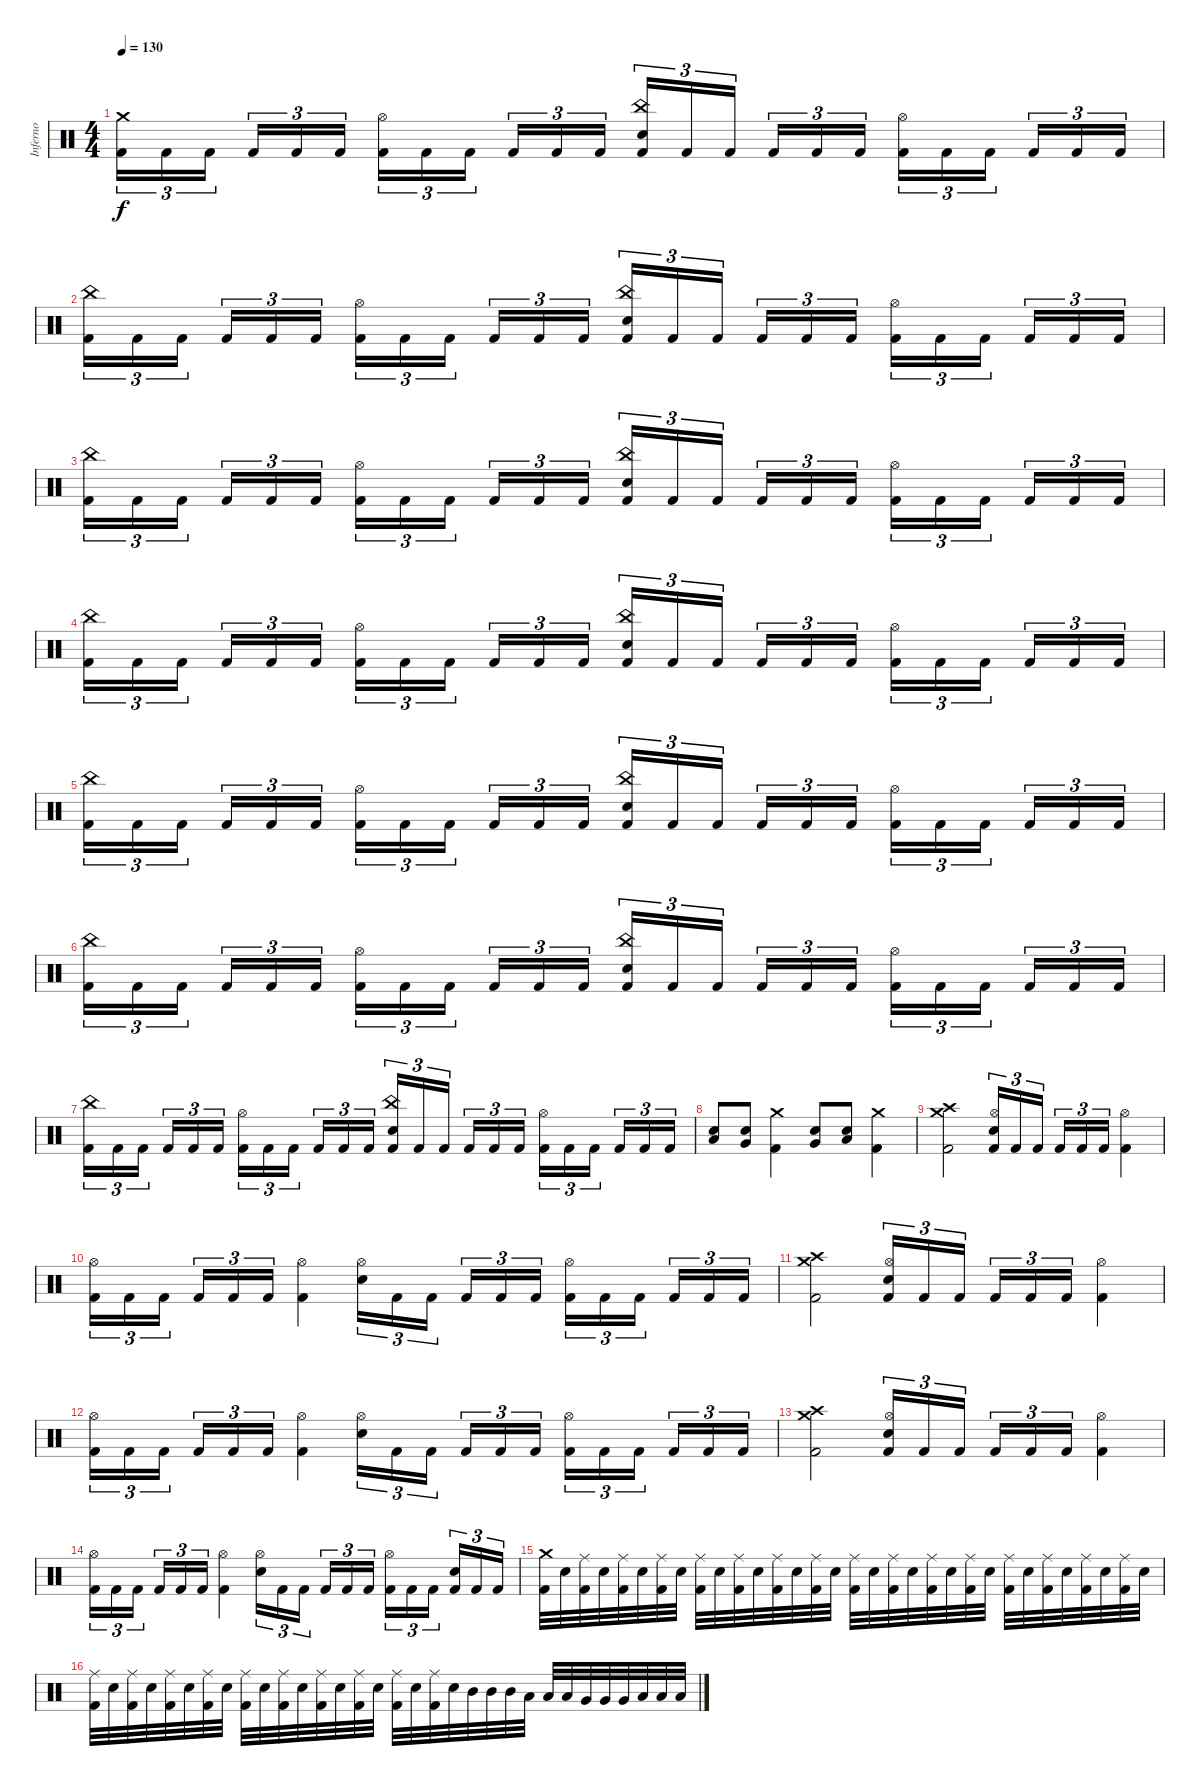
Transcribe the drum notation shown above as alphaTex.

\track ("Inferno" "Inferno") {instrument percussion}
\staff {score}
\articulation defaults
\ts (4 4)
\tempo 130
\clef neutral
\ks c
("Crash medium (hit)" "Kick (hit) 2").16{tu (3 2) dy f} "Kick (hit) 2".16{tu (3 2)} "Kick (hit) 2".16{tu (3 2) beam splitsecondary} "Kick (hit) 2".16{tu (3 2)} "Kick (hit) 2".16{tu (3 2)} "Kick (hit) 2".16{tu (3 2)} ("Hi-Hat (open)" "Kick (hit) 2").16{tu (3 2)} "Kick (hit) 2".16{tu (3 2)} "Kick (hit) 2".16{tu (3 2) beam splitsecondary} "Kick (hit) 2".16{tu (3 2)} "Kick (hit) 2".16{tu (3 2)} "Kick (hit) 2".16{tu (3 2)} ("China (hit)" "Snare (hit) 2" "Kick (hit) 2").16{tu (3 2)} "Kick (hit) 2".16{tu (3 2)} "Kick (hit) 2".16{tu (3 2) beam splitsecondary} "Kick (hit) 2".16{tu (3 2)} "Kick (hit) 2".16{tu (3 2)} "Kick (hit) 2".16{tu (3 2)} ("Hi-Hat (open)" "Kick (hit) 2").16{tu (3 2)} "Kick (hit) 2".16{tu (3 2)} "Kick (hit) 2".16{tu (3 2) beam splitsecondary} "Kick (hit) 2".16{tu (3 2)} "Kick (hit) 2".16{tu (3 2)} "Kick (hit) 2".16{tu (3 2)} |
("China (hit)" "Kick (hit) 2").16{tu (3 2)} "Kick (hit) 2".16{tu (3 2)} "Kick (hit) 2".16{tu (3 2) beam splitsecondary} "Kick (hit) 2".16{tu (3 2)} "Kick (hit) 2".16{tu (3 2)} "Kick (hit) 2".16{tu (3 2)} ("Hi-Hat (open)" "Kick (hit) 2").16{tu (3 2)} "Kick (hit) 2".16{tu (3 2)} "Kick (hit) 2".16{tu (3 2) beam splitsecondary} "Kick (hit) 2".16{tu (3 2)} "Kick (hit) 2".16{tu (3 2)} "Kick (hit) 2".16{tu (3 2)} ("China (hit)" "Snare (hit) 2" "Kick (hit) 2").16{tu (3 2)} "Kick (hit) 2".16{tu (3 2)} "Kick (hit) 2".16{tu (3 2) beam splitsecondary} "Kick (hit) 2".16{tu (3 2)} "Kick (hit) 2".16{tu (3 2)} "Kick (hit) 2".16{tu (3 2)} ("Hi-Hat (open)" "Kick (hit) 2").16{tu (3 2)} "Kick (hit) 2".16{tu (3 2)} "Kick (hit) 2".16{tu (3 2) beam splitsecondary} "Kick (hit) 2".16{tu (3 2)} "Kick (hit) 2".16{tu (3 2)} "Kick (hit) 2".16{tu (3 2)} |
("China (hit)" "Kick (hit) 2").16{tu (3 2)} "Kick (hit) 2".16{tu (3 2)} "Kick (hit) 2".16{tu (3 2) beam splitsecondary} "Kick (hit) 2".16{tu (3 2)} "Kick (hit) 2".16{tu (3 2)} "Kick (hit) 2".16{tu (3 2)} ("Hi-Hat (open)" "Kick (hit) 2").16{tu (3 2)} "Kick (hit) 2".16{tu (3 2)} "Kick (hit) 2".16{tu (3 2) beam splitsecondary} "Kick (hit) 2".16{tu (3 2)} "Kick (hit) 2".16{tu (3 2)} "Kick (hit) 2".16{tu (3 2)} ("China (hit)" "Snare (hit) 2" "Kick (hit) 2").16{tu (3 2)} "Kick (hit) 2".16{tu (3 2)} "Kick (hit) 2".16{tu (3 2) beam splitsecondary} "Kick (hit) 2".16{tu (3 2)} "Kick (hit) 2".16{tu (3 2)} "Kick (hit) 2".16{tu (3 2)} ("Hi-Hat (open)" "Kick (hit) 2").16{tu (3 2)} "Kick (hit) 2".16{tu (3 2)} "Kick (hit) 2".16{tu (3 2) beam splitsecondary} "Kick (hit) 2".16{tu (3 2)} "Kick (hit) 2".16{tu (3 2)} "Kick (hit) 2".16{tu (3 2)} |
("China (hit)" "Kick (hit) 2").16{tu (3 2)} "Kick (hit) 2".16{tu (3 2)} "Kick (hit) 2".16{tu (3 2) beam splitsecondary} "Kick (hit) 2".16{tu (3 2)} "Kick (hit) 2".16{tu (3 2)} "Kick (hit) 2".16{tu (3 2)} ("Hi-Hat (open)" "Kick (hit) 2").16{tu (3 2)} "Kick (hit) 2".16{tu (3 2)} "Kick (hit) 2".16{tu (3 2) beam splitsecondary} "Kick (hit) 2".16{tu (3 2)} "Kick (hit) 2".16{tu (3 2)} "Kick (hit) 2".16{tu (3 2)} ("China (hit)" "Snare (hit) 2" "Kick (hit) 2").16{tu (3 2)} "Kick (hit) 2".16{tu (3 2)} "Kick (hit) 2".16{tu (3 2) beam splitsecondary} "Kick (hit) 2".16{tu (3 2)} "Kick (hit) 2".16{tu (3 2)} "Kick (hit) 2".16{tu (3 2)} ("Hi-Hat (open)" "Kick (hit) 2").16{tu (3 2)} "Kick (hit) 2".16{tu (3 2)} "Kick (hit) 2".16{tu (3 2) beam splitsecondary} "Kick (hit) 2".16{tu (3 2)} "Kick (hit) 2".16{tu (3 2)} "Kick (hit) 2".16{tu (3 2)} |
("China (hit)" "Kick (hit) 2").16{tu (3 2)} "Kick (hit) 2".16{tu (3 2)} "Kick (hit) 2".16{tu (3 2) beam splitsecondary} "Kick (hit) 2".16{tu (3 2)} "Kick (hit) 2".16{tu (3 2)} "Kick (hit) 2".16{tu (3 2)} ("Hi-Hat (open)" "Kick (hit) 2").16{tu (3 2)} "Kick (hit) 2".16{tu (3 2)} "Kick (hit) 2".16{tu (3 2) beam splitsecondary} "Kick (hit) 2".16{tu (3 2)} "Kick (hit) 2".16{tu (3 2)} "Kick (hit) 2".16{tu (3 2)} ("China (hit)" "Snare (hit) 2" "Kick (hit) 2").16{tu (3 2)} "Kick (hit) 2".16{tu (3 2)} "Kick (hit) 2".16{tu (3 2) beam splitsecondary} "Kick (hit) 2".16{tu (3 2)} "Kick (hit) 2".16{tu (3 2)} "Kick (hit) 2".16{tu (3 2)} ("Hi-Hat (open)" "Kick (hit) 2").16{tu (3 2)} "Kick (hit) 2".16{tu (3 2)} "Kick (hit) 2".16{tu (3 2) beam splitsecondary} "Kick (hit) 2".16{tu (3 2)} "Kick (hit) 2".16{tu (3 2)} "Kick (hit) 2".16{tu (3 2)} |
("China (hit)" "Kick (hit) 2").16{tu (3 2)} "Kick (hit) 2".16{tu (3 2)} "Kick (hit) 2".16{tu (3 2) beam splitsecondary} "Kick (hit) 2".16{tu (3 2)} "Kick (hit) 2".16{tu (3 2)} "Kick (hit) 2".16{tu (3 2)} ("Hi-Hat (open)" "Kick (hit) 2").16{tu (3 2)} "Kick (hit) 2".16{tu (3 2)} "Kick (hit) 2".16{tu (3 2) beam splitsecondary} "Kick (hit) 2".16{tu (3 2)} "Kick (hit) 2".16{tu (3 2)} "Kick (hit) 2".16{tu (3 2)} ("China (hit)" "Snare (hit) 2" "Kick (hit) 2").16{tu (3 2)} "Kick (hit) 2".16{tu (3 2)} "Kick (hit) 2".16{tu (3 2) beam splitsecondary} "Kick (hit) 2".16{tu (3 2)} "Kick (hit) 2".16{tu (3 2)} "Kick (hit) 2".16{tu (3 2)} ("Hi-Hat (open)" "Kick (hit) 2").16{tu (3 2)} "Kick (hit) 2".16{tu (3 2)} "Kick (hit) 2".16{tu (3 2) beam splitsecondary} "Kick (hit) 2".16{tu (3 2)} "Kick (hit) 2".16{tu (3 2)} "Kick (hit) 2".16{tu (3 2)} |
("China (hit)" "Kick (hit) 2").16{tu (3 2)} "Kick (hit) 2".16{tu (3 2)} "Kick (hit) 2".16{tu (3 2) beam splitsecondary} "Kick (hit) 2".16{tu (3 2)} "Kick (hit) 2".16{tu (3 2)} "Kick (hit) 2".16{tu (3 2)} ("Hi-Hat (open)" "Kick (hit) 2").16{tu (3 2)} "Kick (hit) 2".16{tu (3 2)} "Kick (hit) 2".16{tu (3 2) beam splitsecondary} "Kick (hit) 2".16{tu (3 2)} "Kick (hit) 2".16{tu (3 2)} "Kick (hit) 2".16{tu (3 2)} ("China (hit)" "Snare (hit) 2" "Kick (hit) 2").16{tu (3 2)} "Kick (hit) 2".16{tu (3 2)} "Kick (hit) 2".16{tu (3 2) beam splitsecondary} "Kick (hit) 2".16{tu (3 2)} "Kick (hit) 2".16{tu (3 2)} "Kick (hit) 2".16{tu (3 2)} ("Hi-Hat (open)" "Kick (hit) 2").16{tu (3 2)} "Kick (hit) 2".16{tu (3 2)} "Kick (hit) 2".16{tu (3 2) beam splitsecondary} "Kick (hit) 2".16{tu (3 2)} "Kick (hit) 2".16{tu (3 2)} "Kick (hit) 2".16{tu (3 2)} |
("Low Tom (hit)" "Snare (hit) 2").8 ("Very Low Tom (hit)" "Snare (hit) 2").8 ("Crash medium (hit)" "Kick (hit) 2").4 ("Very Low Tom (hit)" "Snare (hit) 2").8 ("Low Floor Tom (hit)" "Snare (hit) 2").8 ("Crash medium (hit)" "Kick (hit) 2").4 |
("Crash medium (hit)" "Crash high (hit)" "Kick (hit) 2").2 ("Hi-Hat (open)" "Snare (hit) 2" "Kick (hit) 2").16{tu (3 2)} "Kick (hit) 2".16{tu (3 2)} "Kick (hit) 2".16{tu (3 2) beam splitsecondary} "Kick (hit) 2".16{tu (3 2)} "Kick (hit) 2".16{tu (3 2)} "Kick (hit) 2".16{tu (3 2)} ("Hi-Hat (open)" "Kick (hit) 2").4 |
("Hi-Hat (open)" "Kick (hit) 2").16{tu (3 2)} "Kick (hit) 2".16{tu (3 2)} "Kick (hit) 2".16{tu (3 2) beam splitsecondary} "Kick (hit) 2".16{tu (3 2)} "Kick (hit) 2".16{tu (3 2)} "Kick (hit) 2".16{tu (3 2)} ("Hi-Hat (open)" "Kick (hit) 2").4 ("Hi-Hat (open)" "Snare (hit) 2").16{tu (3 2)} "Kick (hit) 2".16{tu (3 2)} "Kick (hit) 2".16{tu (3 2) beam splitsecondary} "Kick (hit) 2".16{tu (3 2)} "Kick (hit) 2".16{tu (3 2)} "Kick (hit) 2".16{tu (3 2)} ("Hi-Hat (open)" "Kick (hit) 2").16{tu (3 2)} "Kick (hit) 2".16{tu (3 2)} "Kick (hit) 2".16{tu (3 2) beam splitsecondary} "Kick (hit) 2".16{tu (3 2)} "Kick (hit) 2".16{tu (3 2)} "Kick (hit) 2".16{tu (3 2)} |
("Crash medium (hit)" "Crash high (hit)" "Kick (hit) 2").2 ("Hi-Hat (open)" "Snare (hit) 2" "Kick (hit) 2").16{tu (3 2)} "Kick (hit) 2".16{tu (3 2)} "Kick (hit) 2".16{tu (3 2) beam splitsecondary} "Kick (hit) 2".16{tu (3 2)} "Kick (hit) 2".16{tu (3 2)} "Kick (hit) 2".16{tu (3 2)} ("Hi-Hat (open)" "Kick (hit) 2").4 |
("Hi-Hat (open)" "Kick (hit) 2").16{tu (3 2)} "Kick (hit) 2".16{tu (3 2)} "Kick (hit) 2".16{tu (3 2) beam splitsecondary} "Kick (hit) 2".16{tu (3 2)} "Kick (hit) 2".16{tu (3 2)} "Kick (hit) 2".16{tu (3 2)} ("Hi-Hat (open)" "Kick (hit) 2").4 ("Hi-Hat (open)" "Snare (hit) 2").16{tu (3 2)} "Kick (hit) 2".16{tu (3 2)} "Kick (hit) 2".16{tu (3 2) beam splitsecondary} "Kick (hit) 2".16{tu (3 2)} "Kick (hit) 2".16{tu (3 2)} "Kick (hit) 2".16{tu (3 2)} ("Hi-Hat (open)" "Kick (hit) 2").16{tu (3 2)} "Kick (hit) 2".16{tu (3 2)} "Kick (hit) 2".16{tu (3 2) beam splitsecondary} "Kick (hit) 2".16{tu (3 2)} "Kick (hit) 2".16{tu (3 2)} "Kick (hit) 2".16{tu (3 2)} |
("Crash medium (hit)" "Crash high (hit)" "Kick (hit) 2").2 ("Hi-Hat (open)" "Snare (hit) 2" "Kick (hit) 2").16{tu (3 2)} "Kick (hit) 2".16{tu (3 2)} "Kick (hit) 2".16{tu (3 2) beam splitsecondary} "Kick (hit) 2".16{tu (3 2)} "Kick (hit) 2".16{tu (3 2)} "Kick (hit) 2".16{tu (3 2)} ("Hi-Hat (open)" "Kick (hit) 2").4 |
("Hi-Hat (open)" "Kick (hit) 2").16{tu (3 2)} "Kick (hit) 2".16{tu (3 2)} "Kick (hit) 2".16{tu (3 2) beam splitsecondary} "Kick (hit) 2".16{tu (3 2)} "Kick (hit) 2".16{tu (3 2)} "Kick (hit) 2".16{tu (3 2)} ("Hi-Hat (open)" "Kick (hit) 2").4 ("Hi-Hat (open)" "Snare (hit) 2").16{tu (3 2)} "Kick (hit) 2".16{tu (3 2)} "Kick (hit) 2".16{tu (3 2) beam splitsecondary} "Kick (hit) 2".16{tu (3 2)} "Kick (hit) 2".16{tu (3 2)} "Kick (hit) 2".16{tu (3 2)} ("Hi-Hat (open)" "Kick (hit) 2").16{tu (3 2)} "Kick (hit) 2".16{tu (3 2)} "Kick (hit) 2".16{tu (3 2) beam splitsecondary} ("Snare (hit) 2" "Kick (hit) 2").16{tu (3 2)} "Kick (hit) 2".16{tu (3 2)} "Kick (hit) 2".16{tu (3 2)} |
("Crash medium (hit)" "Kick (hit) 2").32 "Snare (hit) 2".32 ("Ride (middle)" "Kick (hit) 2").32 "Snare (hit) 2".32 ("Ride (middle)" "Kick (hit) 2").32 "Snare (hit) 2".32 ("Ride (middle)" "Kick (hit) 2").32 "Snare (hit) 2".32 ("Ride (middle)" "Kick (hit) 2").32 "Snare (hit) 2".32 ("Ride (middle)" "Kick (hit) 2").32 "Snare (hit) 2".32 ("Ride (middle)" "Kick (hit) 2").32 "Snare (hit) 2".32 ("Ride (middle)" "Kick (hit) 2").32 "Snare (hit) 2".32 ("Ride (middle)" "Kick (hit) 2").32 "Snare (hit) 2".32 ("Ride (middle)" "Kick (hit) 2").32 "Snare (hit) 2".32 ("Ride (middle)" "Kick (hit) 2").32 "Snare (hit) 2".32 ("Ride (middle)" "Kick (hit) 2").32 "Snare (hit) 2".32 ("Ride (middle)" "Kick (hit) 2").32 "Snare (hit) 2".32 ("Ride (middle)" "Kick (hit) 2").32 "Snare (hit) 2".32 ("Ride (middle)" "Kick (hit) 2").32 "Snare (hit) 2".32 ("Ride (middle)" "Kick (hit) 2").32 "Snare (hit) 2".32 |
("Ride (middle)" "Kick (hit) 2").32 "Snare (hit) 2".32 ("Ride (middle)" "Kick (hit) 2").32 "Snare (hit) 2".32 ("Ride (middle)" "Kick (hit) 2").32 "Snare (hit) 2".32 ("Ride (middle)" "Kick (hit) 2").32 "Snare (hit) 2".32 ("Ride (middle)" "Kick (hit) 2").32 "Snare (hit) 2".32 ("Ride (middle)" "Kick (hit) 2").32 "Snare (hit) 2".32 ("Ride (middle)" "Kick (hit) 2").32 "Snare (hit) 2".32 ("Ride (middle)" "Kick (hit) 2").32 "Snare (hit) 2".32 ("Ride (middle)" "Kick (hit) 2").32 "Snare (hit) 2".32 ("Ride (middle)" "Kick (hit) 2").32 "Snare (hit) 2".32 "Mid Tom (hit)".32 "Mid Tom (hit)".32 "Mid Tom (hit)".32 "Low Tom (hit)".32 "Low Tom (hit)".32 "Low Tom (hit)".32 "Very Low Tom (hit)".32 "Very Low Tom (hit)".32 "Very Low Tom (hit)".32 "Low Floor Tom (hit)".32 "Low Floor Tom (hit)".32 "Low Floor Tom (hit)".32
